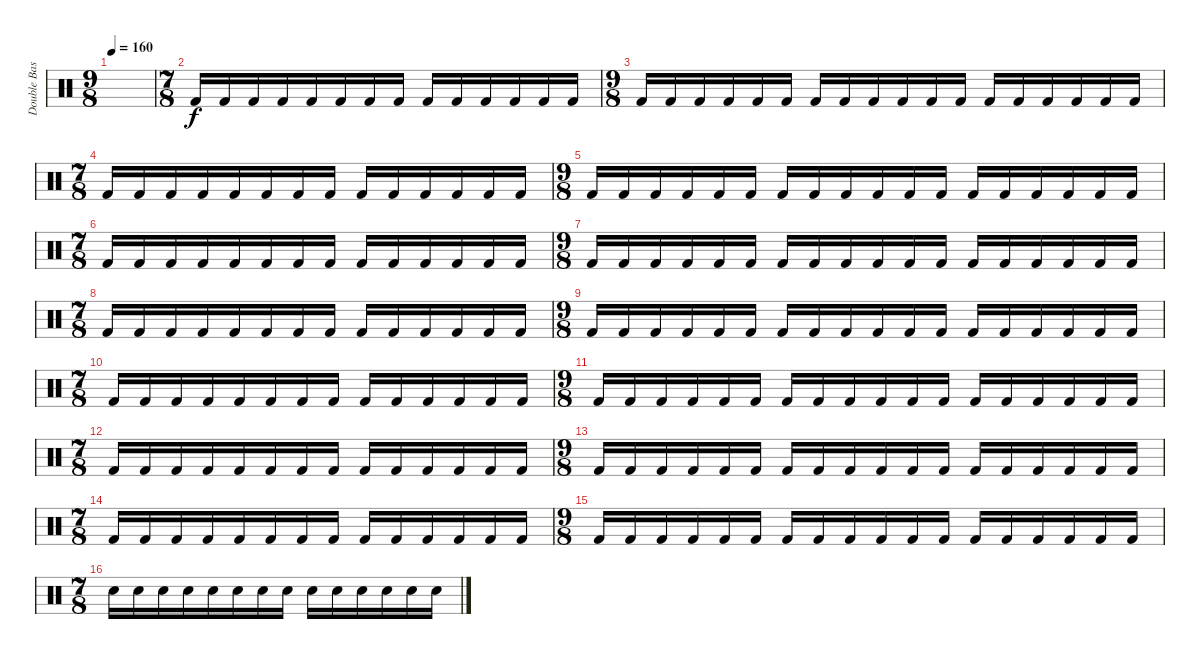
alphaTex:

\track ("Double Bass" "Double Bas") {instrument percussion}
\staff {score}
\articulation defaults
\ts (9 8)
\tempo 160
\clef neutral
\ks c
|
\ts (7 8)
"Kick (hit) 2".16 "Kick (hit) 2".16 "Kick (hit) 2".16 "Kick (hit) 2".16 "Kick (hit) 2".16 "Kick (hit) 2".16 "Kick (hit) 2".16 "Kick (hit) 2".16 "Kick (hit) 2".16 "Kick (hit) 2".16 "Kick (hit) 2".16 "Kick (hit) 2".16 "Kick (hit) 2".16 "Kick (hit) 2".16 |
\ts (9 8)
"Kick (hit) 2".16 "Kick (hit) 2".16 "Kick (hit) 2".16 "Kick (hit) 2".16 "Kick (hit) 2".16 "Kick (hit) 2".16 "Kick (hit) 2".16 "Kick (hit) 2".16 "Kick (hit) 2".16 "Kick (hit) 2".16 "Kick (hit) 2".16 "Kick (hit) 2".16 "Kick (hit) 2".16 "Kick (hit) 2".16 "Kick (hit) 2".16 "Kick (hit) 2".16 "Kick (hit) 2".16 "Kick (hit) 2".16 |
\ts (7 8)
"Kick (hit) 2".16 "Kick (hit) 2".16 "Kick (hit) 2".16 "Kick (hit) 2".16 "Kick (hit) 2".16 "Kick (hit) 2".16 "Kick (hit) 2".16 "Kick (hit) 2".16 "Kick (hit) 2".16 "Kick (hit) 2".16 "Kick (hit) 2".16 "Kick (hit) 2".16 "Kick (hit) 2".16 "Kick (hit) 2".16 |
\ts (9 8)
"Kick (hit) 2".16 "Kick (hit) 2".16 "Kick (hit) 2".16 "Kick (hit) 2".16 "Kick (hit) 2".16 "Kick (hit) 2".16 "Kick (hit) 2".16 "Kick (hit) 2".16 "Kick (hit) 2".16 "Kick (hit) 2".16 "Kick (hit) 2".16 "Kick (hit) 2".16 "Kick (hit) 2".16 "Kick (hit) 2".16 "Kick (hit) 2".16 "Kick (hit) 2".16 "Kick (hit) 2".16 "Kick (hit) 2".16 |
\ts (7 8)
"Kick (hit) 2".16 "Kick (hit) 2".16 "Kick (hit) 2".16 "Kick (hit) 2".16 "Kick (hit) 2".16 "Kick (hit) 2".16 "Kick (hit) 2".16 "Kick (hit) 2".16 "Kick (hit) 2".16 "Kick (hit) 2".16 "Kick (hit) 2".16 "Kick (hit) 2".16 "Kick (hit) 2".16 "Kick (hit) 2".16 |
\ts (9 8)
"Kick (hit) 2".16 "Kick (hit) 2".16 "Kick (hit) 2".16 "Kick (hit) 2".16 "Kick (hit) 2".16 "Kick (hit) 2".16 "Kick (hit) 2".16 "Kick (hit) 2".16 "Kick (hit) 2".16 "Kick (hit) 2".16 "Kick (hit) 2".16 "Kick (hit) 2".16 "Kick (hit) 2".16 "Kick (hit) 2".16 "Kick (hit) 2".16 "Kick (hit) 2".16 "Kick (hit) 2".16 "Kick (hit) 2".16 |
\ts (7 8)
"Kick (hit) 2".16 "Kick (hit) 2".16 "Kick (hit) 2".16 "Kick (hit) 2".16 "Kick (hit) 2".16 "Kick (hit) 2".16 "Kick (hit) 2".16 "Kick (hit) 2".16 "Kick (hit) 2".16 "Kick (hit) 2".16 "Kick (hit) 2".16 "Kick (hit) 2".16 "Kick (hit) 2".16 "Kick (hit) 2".16 |
\ts (9 8)
"Kick (hit) 2".16 "Kick (hit) 2".16 "Kick (hit) 2".16 "Kick (hit) 2".16 "Kick (hit) 2".16 "Kick (hit) 2".16 "Kick (hit) 2".16 "Kick (hit) 2".16 "Kick (hit) 2".16 "Kick (hit) 2".16 "Kick (hit) 2".16 "Kick (hit) 2".16 "Kick (hit) 2".16 "Kick (hit) 2".16 "Kick (hit) 2".16 "Kick (hit) 2".16 "Kick (hit) 2".16 "Kick (hit) 2".16 |
\ts (7 8)
"Kick (hit) 2".16 "Kick (hit) 2".16 "Kick (hit) 2".16 "Kick (hit) 2".16 "Kick (hit) 2".16 "Kick (hit) 2".16 "Kick (hit) 2".16 "Kick (hit) 2".16 "Kick (hit) 2".16 "Kick (hit) 2".16 "Kick (hit) 2".16 "Kick (hit) 2".16 "Kick (hit) 2".16 "Kick (hit) 2".16 |
\ts (9 8)
"Kick (hit) 2".16 "Kick (hit) 2".16 "Kick (hit) 2".16 "Kick (hit) 2".16 "Kick (hit) 2".16 "Kick (hit) 2".16 "Kick (hit) 2".16 "Kick (hit) 2".16 "Kick (hit) 2".16 "Kick (hit) 2".16 "Kick (hit) 2".16 "Kick (hit) 2".16 "Kick (hit) 2".16 "Kick (hit) 2".16 "Kick (hit) 2".16 "Kick (hit) 2".16 "Kick (hit) 2".16 "Kick (hit) 2".16 |
\ts (7 8)
"Kick (hit) 2".16 "Kick (hit) 2".16 "Kick (hit) 2".16 "Kick (hit) 2".16 "Kick (hit) 2".16 "Kick (hit) 2".16 "Kick (hit) 2".16 "Kick (hit) 2".16 "Kick (hit) 2".16 "Kick (hit) 2".16 "Kick (hit) 2".16 "Kick (hit) 2".16 "Kick (hit) 2".16 "Kick (hit) 2".16 |
\ts (9 8)
"Kick (hit) 2".16 "Kick (hit) 2".16 "Kick (hit) 2".16 "Kick (hit) 2".16 "Kick (hit) 2".16 "Kick (hit) 2".16 "Kick (hit) 2".16 "Kick (hit) 2".16 "Kick (hit) 2".16 "Kick (hit) 2".16 "Kick (hit) 2".16 "Kick (hit) 2".16 "Kick (hit) 2".16 "Kick (hit) 2".16 "Kick (hit) 2".16 "Kick (hit) 2".16 "Kick (hit) 2".16 "Kick (hit) 2".16 |
\ts (7 8)
"Kick (hit) 2".16 "Kick (hit) 2".16 "Kick (hit) 2".16 "Kick (hit) 2".16 "Kick (hit) 2".16 "Kick (hit) 2".16 "Kick (hit) 2".16 "Kick (hit) 2".16 "Kick (hit) 2".16 "Kick (hit) 2".16 "Kick (hit) 2".16 "Kick (hit) 2".16 "Kick (hit) 2".16 "Kick (hit) 2".16 |
\ts (9 8)
"Kick (hit) 2".16 "Kick (hit) 2".16 "Kick (hit) 2".16 "Kick (hit) 2".16 "Kick (hit) 2".16 "Kick (hit) 2".16 "Kick (hit) 2".16 "Kick (hit) 2".16 "Kick (hit) 2".16 "Kick (hit) 2".16 "Kick (hit) 2".16 "Kick (hit) 2".16 "Kick (hit) 2".16 "Kick (hit) 2".16 "Kick (hit) 2".16 "Kick (hit) 2".16 "Kick (hit) 2".16 "Kick (hit) 2".16 |
\ts (7 8)
"Snare (hit) 2".16 "Snare (hit) 2".16 "Snare (hit) 2".16 "Snare (hit) 2".16 "Snare (hit) 2".16 "Snare (hit) 2".16 "Snare (hit) 2".16 "Snare (hit) 2".16 "Snare (hit) 2".16 "Snare (hit) 2".16 "Snare (hit) 2".16 "Snare (hit) 2".16 "Snare (hit) 2".16 "Snare (hit) 2".16
